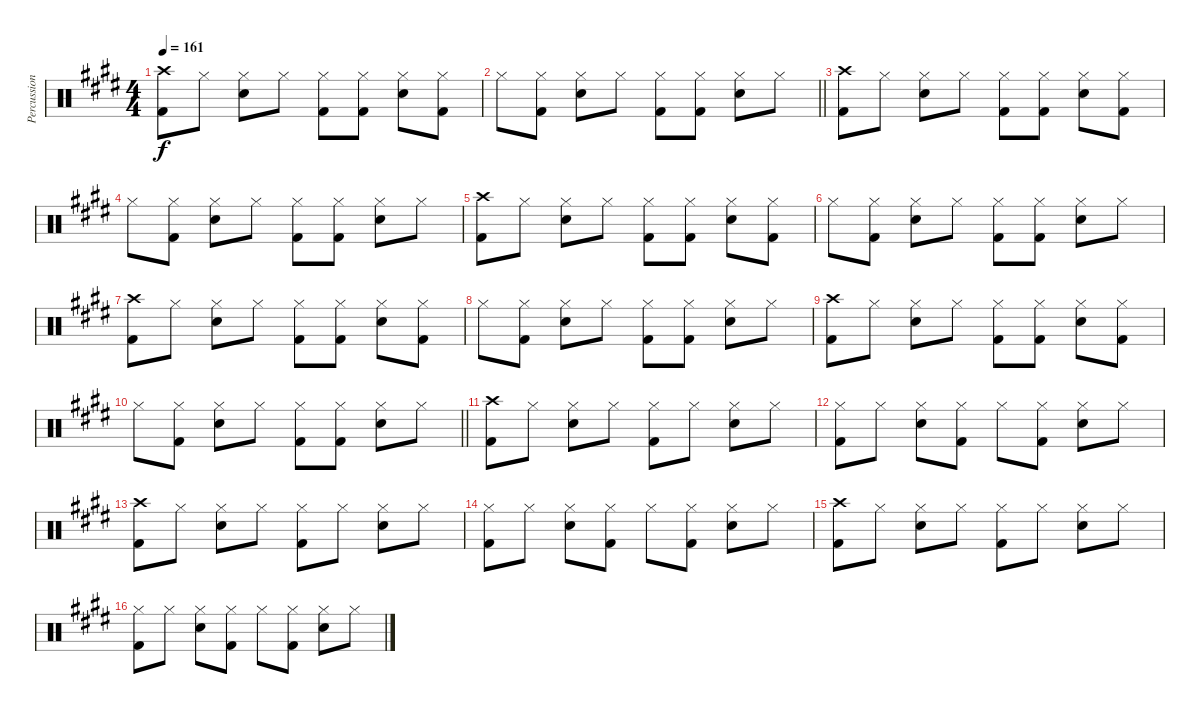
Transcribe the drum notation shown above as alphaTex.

\track ("Percussion" "Percussion") {instrument percussion}
\staff {score}
\articulation defaults
\ts (4 4)
\tempo 161
\clef neutral
\ks e
("Crash high (hit)" "Kick (hit) 2").8{dy f} "Hi-Hat (closed)".8 ("Hi-Hat (closed)" "Snare (hit) 2").8 "Hi-Hat (closed)".8 ("Hi-Hat (closed)" "Kick (hit) 2").8 ("Hi-Hat (closed)" "Kick (hit) 2").8 ("Hi-Hat (closed)" "Snare (hit) 2").8 ("Hi-Hat (closed)" "Kick (hit) 2").8 |
\barLineRight lightlight "Hi-Hat (closed)".8
("Hi-Hat (closed)" "Kick (hit) 2").8 ("Hi-Hat (closed)" "Snare (hit) 2").8 "Hi-Hat (closed)".8 ("Hi-Hat (closed)" "Kick (hit) 2").8 ("Hi-Hat (closed)" "Kick (hit) 2").8 ("Hi-Hat (closed)" "Snare (hit) 2").8 "Hi-Hat (closed)".8 |
("Crash high (hit)" "Kick (hit) 2").8 "Hi-Hat (closed)".8 ("Hi-Hat (closed)" "Snare (hit) 2").8 "Hi-Hat (closed)".8 ("Hi-Hat (closed)" "Kick (hit) 2").8 ("Hi-Hat (closed)" "Kick (hit) 2").8 ("Hi-Hat (closed)" "Snare (hit) 2").8 ("Hi-Hat (closed)" "Kick (hit) 2").8 |
"Hi-Hat (closed)".8 ("Hi-Hat (closed)" "Kick (hit) 2").8 ("Hi-Hat (closed)" "Snare (hit) 2").8 "Hi-Hat (closed)".8 ("Hi-Hat (closed)" "Kick (hit) 2").8 ("Hi-Hat (closed)" "Kick (hit) 2").8 ("Hi-Hat (closed)" "Snare (hit) 2").8 "Hi-Hat (closed)".8 |
("Crash high (hit)" "Kick (hit) 2").8 "Hi-Hat (closed)".8 ("Hi-Hat (closed)" "Snare (hit) 2").8 "Hi-Hat (closed)".8 ("Hi-Hat (closed)" "Kick (hit) 2").8 ("Hi-Hat (closed)" "Kick (hit) 2").8 ("Hi-Hat (closed)" "Snare (hit) 2").8 ("Hi-Hat (closed)" "Kick (hit) 2").8 |
"Hi-Hat (closed)".8 ("Hi-Hat (closed)" "Kick (hit) 2").8 ("Hi-Hat (closed)" "Snare (hit) 2").8 "Hi-Hat (closed)".8 ("Hi-Hat (closed)" "Kick (hit) 2").8 ("Hi-Hat (closed)" "Kick (hit) 2").8 ("Hi-Hat (closed)" "Snare (hit) 2").8 "Hi-Hat (closed)".8 |
("Crash high (hit)" "Kick (hit) 2").8 "Hi-Hat (closed)".8 ("Hi-Hat (closed)" "Snare (hit) 2").8 "Hi-Hat (closed)".8 ("Hi-Hat (closed)" "Kick (hit) 2").8 ("Hi-Hat (closed)" "Kick (hit) 2").8 ("Hi-Hat (closed)" "Snare (hit) 2").8 ("Hi-Hat (closed)" "Kick (hit) 2").8 |
"Hi-Hat (closed)".8 ("Hi-Hat (closed)" "Kick (hit) 2").8 ("Hi-Hat (closed)" "Snare (hit) 2").8 "Hi-Hat (closed)".8 ("Hi-Hat (closed)" "Kick (hit) 2").8 ("Hi-Hat (closed)" "Kick (hit) 2").8 ("Hi-Hat (closed)" "Snare (hit) 2").8 "Hi-Hat (closed)".8 |
("Crash high (hit)" "Kick (hit) 2").8 "Hi-Hat (closed)".8 ("Hi-Hat (closed)" "Snare (hit) 2").8 "Hi-Hat (closed)".8 ("Hi-Hat (closed)" "Kick (hit) 2").8 ("Hi-Hat (closed)" "Kick (hit) 2").8 ("Hi-Hat (closed)" "Snare (hit) 2").8 ("Hi-Hat (closed)" "Kick (hit) 2").8 |
\barLineRight lightlight "Hi-Hat (closed)".8
("Hi-Hat (closed)" "Kick (hit) 2").8 ("Hi-Hat (closed)" "Snare (hit) 2").8 "Hi-Hat (closed)".8 ("Hi-Hat (closed)" "Kick (hit) 2").8 ("Hi-Hat (closed)" "Kick (hit) 2").8 ("Hi-Hat (closed)" "Snare (hit) 2").8 "Hi-Hat (closed)".8 |
("Crash high (hit)" "Kick (hit) 2").8 "Hi-Hat (closed)".8 ("Hi-Hat (closed)" "Snare (hit) 2").8 "Hi-Hat (closed)".8 ("Hi-Hat (closed)" "Kick (hit) 2").8 "Hi-Hat (closed)".8 ("Hi-Hat (closed)" "Snare (hit) 2").8 "Hi-Hat (closed)".8 |
("Hi-Hat (closed)" "Kick (hit) 2").8 "Hi-Hat (closed)".8 ("Hi-Hat (closed)" "Snare (hit) 2").8 ("Hi-Hat (closed)" "Kick (hit) 2").8 "Hi-Hat (closed)".8 ("Hi-Hat (closed)" "Kick (hit) 2").8 ("Hi-Hat (closed)" "Snare (hit) 2").8 "Hi-Hat (closed)".8 |
("Crash high (hit)" "Kick (hit) 2").8 "Hi-Hat (closed)".8 ("Hi-Hat (closed)" "Snare (hit) 2").8 "Hi-Hat (closed)".8 ("Hi-Hat (closed)" "Kick (hit) 2").8 "Hi-Hat (closed)".8 ("Hi-Hat (closed)" "Snare (hit) 2").8 "Hi-Hat (closed)".8 |
("Hi-Hat (closed)" "Kick (hit) 2").8 "Hi-Hat (closed)".8 ("Hi-Hat (closed)" "Snare (hit) 2").8 ("Hi-Hat (closed)" "Kick (hit) 2").8 "Hi-Hat (closed)".8 ("Hi-Hat (closed)" "Kick (hit) 2").8 ("Hi-Hat (closed)" "Snare (hit) 2").8 "Hi-Hat (closed)".8 |
("Crash high (hit)" "Kick (hit) 2").8 "Hi-Hat (closed)".8 ("Hi-Hat (closed)" "Snare (hit) 2").8 "Hi-Hat (closed)".8 ("Hi-Hat (closed)" "Kick (hit) 2").8 "Hi-Hat (closed)".8 ("Hi-Hat (closed)" "Snare (hit) 2").8 "Hi-Hat (closed)".8 |
("Hi-Hat (closed)" "Kick (hit) 2").8 "Hi-Hat (closed)".8 ("Hi-Hat (closed)" "Snare (hit) 2").8 ("Hi-Hat (closed)" "Kick (hit) 2").8 "Hi-Hat (closed)".8 ("Hi-Hat (closed)" "Kick (hit) 2").8 ("Hi-Hat (closed)" "Snare (hit) 2").8 "Hi-Hat (closed)".8
